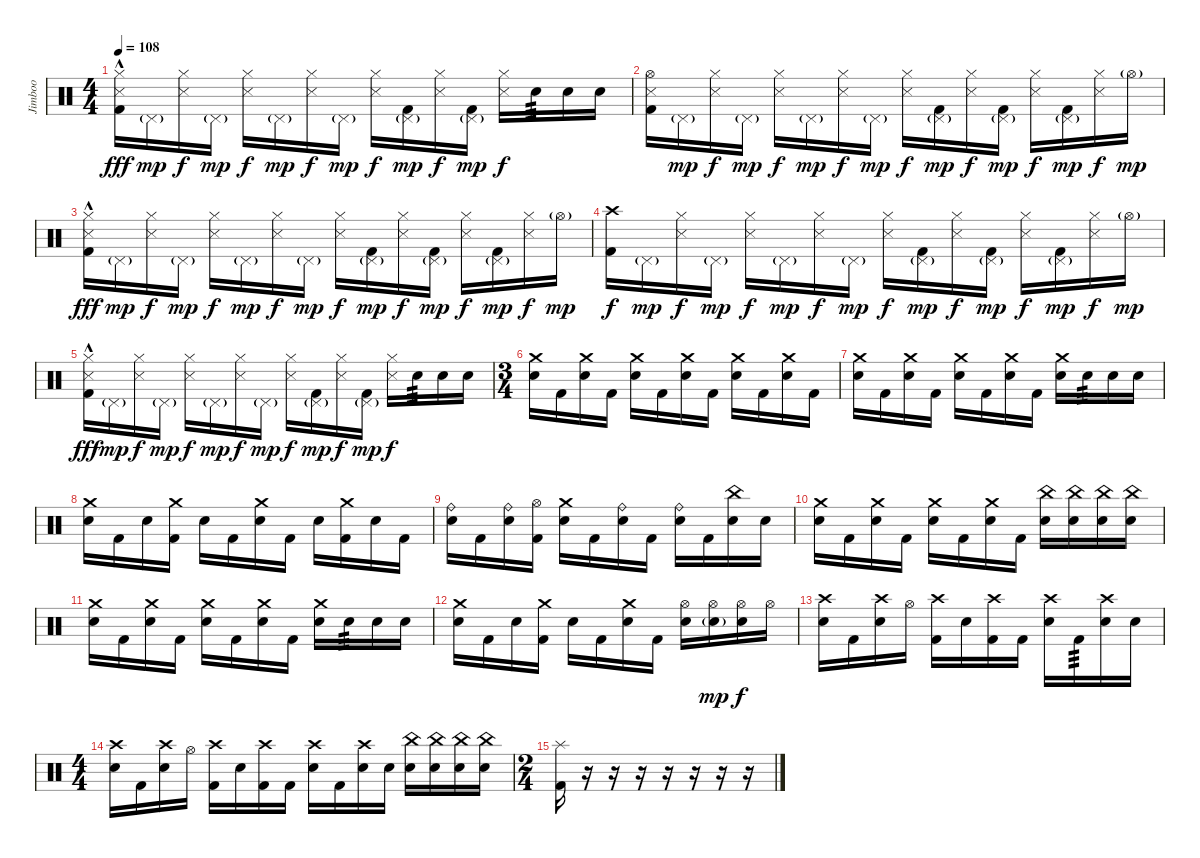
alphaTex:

\track ("Jimboo" "Jimboo") {instrument percussion}
\staff
\articulation defaults
\ts (4 4)
\tempo 108
\clef neutral
\ks c
("Hi-Hat (closed)" "Snare (side stick) 3"{hac} "Kick (hit) 2").16{dy fff} "Pedal Hi-Hat (hit)"{g}.16{dy mp} ("Hi-Hat (closed)" "Snare (side stick) 3").16{dy f} "Pedal Hi-Hat (hit)"{g}.16{dy mp} ("Hi-Hat (closed)" "Snare (side stick) 3").16{dy f} "Pedal Hi-Hat (hit)"{g}.16{dy mp} ("Hi-Hat (closed)" "Snare (side stick) 3").16{dy f} "Pedal Hi-Hat (hit)"{g}.16{dy mp} ("Hi-Hat (closed)" "Snare (side stick) 3").16{dy f} ("Pedal Hi-Hat (hit)"{g} "Kick (hit) 2").16{dy mp} ("Hi-Hat (closed)" "Snare (side stick) 3").16{dy f} ("Pedal Hi-Hat (hit)"{g} "Kick (hit) 2").16{dy mp} ("Hi-Hat (closed)" "Snare (side stick) 3").16{dy f} "Electric Snare (hit)".16{tp 3} "Electric Snare (hit)".16 "Electric Snare (hit)".16 |
("Hi-Hat (open)" "Snare (side stick) 3" "Kick (hit) 2").16 "Pedal Hi-Hat (hit)"{g}.16{dy mp} ("Hi-Hat (closed)" "Snare (side stick) 3").16{dy f} "Pedal Hi-Hat (hit)"{g}.16{dy mp} ("Hi-Hat (closed)" "Snare (side stick) 3").16{dy f} "Pedal Hi-Hat (hit)"{g}.16{dy mp} ("Hi-Hat (closed)" "Snare (side stick) 3").16{dy f} "Pedal Hi-Hat (hit)"{g}.16{dy mp} ("Hi-Hat (closed)" "Snare (side stick) 3").16{dy f} ("Pedal Hi-Hat (hit)"{g} "Kick (hit) 2").16{dy mp} ("Hi-Hat (closed)" "Snare (side stick) 3").16{dy f} ("Pedal Hi-Hat (hit)"{g} "Kick (hit) 2").16{dy mp} ("Hi-Hat (closed)" "Snare (side stick) 3").16{dy f} ("Pedal Hi-Hat (hit)"{g} "Kick (hit) 2").16{dy mp} ("Hi-Hat (closed)" "Snare (side stick) 3").16{dy f} "Hi-Hat (open)"{g}.16{dy mp} |
("Hi-Hat (closed)" "Snare (side stick) 3"{hac} "Kick (hit) 2").16{dy fff} "Pedal Hi-Hat (hit)"{g}.16{dy mp} ("Hi-Hat (closed)" "Snare (side stick) 3").16{dy f} "Pedal Hi-Hat (hit)"{g}.16{dy mp} ("Hi-Hat (closed)" "Snare (side stick) 3").16{dy f} "Pedal Hi-Hat (hit)"{g}.16{dy mp} ("Hi-Hat (closed)" "Snare (side stick) 3").16{dy f} "Pedal Hi-Hat (hit)"{g}.16{dy mp} ("Hi-Hat (closed)" "Snare (side stick) 3").16{dy f} ("Pedal Hi-Hat (hit)"{g} "Kick (hit) 2").16{dy mp} ("Hi-Hat (closed)" "Snare (side stick) 3").16{dy f} ("Pedal Hi-Hat (hit)"{g} "Kick (hit) 2").16{dy mp} ("Hi-Hat (closed)" "Snare (side stick) 3").16{dy f} ("Pedal Hi-Hat (hit)"{g} "Kick (hit) 2").16{dy mp} ("Hi-Hat (closed)" "Snare (side stick) 3").16{dy f} "Hi-Hat (open)"{g}.16{dy mp} |
("Crash high (hit)" "Kick (hit) 2").16{dy f} "Pedal Hi-Hat (hit)"{g}.16{dy mp} ("Hi-Hat (closed)" "Snare (side stick) 3").16{dy f} "Pedal Hi-Hat (hit)"{g}.16{dy mp} ("Hi-Hat (closed)" "Snare (side stick) 3").16{dy f} "Pedal Hi-Hat (hit)"{g}.16{dy mp} ("Hi-Hat (closed)" "Snare (side stick) 3").16{dy f} "Pedal Hi-Hat (hit)"{g}.16{dy mp} ("Hi-Hat (closed)" "Snare (side stick) 3").16{dy f} ("Pedal Hi-Hat (hit)"{g} "Kick (hit) 2").16{dy mp} ("Hi-Hat (closed)" "Snare (side stick) 3").16{dy f} ("Pedal Hi-Hat (hit)"{g} "Kick (hit) 2").16{dy mp} ("Hi-Hat (closed)" "Snare (side stick) 3").16{dy f} ("Pedal Hi-Hat (hit)"{g} "Kick (hit) 2").16{dy mp} ("Hi-Hat (closed)" "Snare (side stick) 3").16{dy f} "Hi-Hat (open)"{g}.16{dy mp} |
("Hi-Hat (closed)" "Snare (side stick) 3"{hac} "Kick (hit) 2").16{dy fff} "Pedal Hi-Hat (hit)"{g}.16{dy mp} ("Hi-Hat (closed)" "Snare (side stick) 3").16{dy f} "Pedal Hi-Hat (hit)"{g}.16{dy mp} ("Hi-Hat (closed)" "Snare (side stick) 3").16{dy f} "Pedal Hi-Hat (hit)"{g}.16{dy mp} ("Hi-Hat (closed)" "Snare (side stick) 3").16{dy f} "Pedal Hi-Hat (hit)"{g}.16{dy mp} ("Hi-Hat (closed)" "Snare (side stick) 3").16{dy f} ("Pedal Hi-Hat (hit)"{g} "Kick (hit) 2").16{dy mp} ("Hi-Hat (closed)" "Snare (side stick) 3").16{dy f} ("Pedal Hi-Hat (hit)"{g} "Kick (hit) 2").16{dy mp} ("Hi-Hat (closed)" "Snare (side stick) 3").16{dy f} "Electric Snare (hit)".16{tp 3} "Electric Snare (hit)".16 "Electric Snare (hit)".16 |
\ts (3 4)
("Electric Snare (hit)" "Crash medium (hit)").16 "Kick (hit) 2".16 ("Electric Snare (hit)" "Crash medium (hit)").16 "Kick (hit) 2".16 ("Electric Snare (hit)" "Crash medium (hit)").16 "Kick (hit) 2".16 ("Electric Snare (hit)" "Crash medium (hit)").16 "Kick (hit) 2".16 ("Electric Snare (hit)" "Crash medium (hit)").16 "Kick (hit) 2".16 ("Electric Snare (hit)" "Crash medium (hit)").16 "Kick (hit) 2".16 |
("Electric Snare (hit)" "Crash medium (hit)").16 "Kick (hit) 2".16 ("Electric Snare (hit)" "Crash medium (hit)").16 "Kick (hit) 2".16 ("Electric Snare (hit)" "Crash medium (hit)").16 "Kick (hit) 2".16 ("Electric Snare (hit)" "Crash medium (hit)").16 "Kick (hit) 2".16 ("Electric Snare (hit)" "Crash medium (hit)").16 "Electric Snare (hit)".16{tp 3} "Electric Snare (hit)".16 "Electric Snare (hit)".16 |
("Electric Snare (hit)" "Crash medium (hit)").16 "Kick (hit) 2".16 "Electric Snare (hit)".16 ("Kick (hit) 2" "Crash medium (hit)").16 "Electric Snare (hit)".16 "Kick (hit) 2".16 ("Electric Snare (hit)" "Crash medium (hit)").16 "Kick (hit) 2".16 "Electric Snare (hit)".16 ("Kick (hit) 2" "Crash medium (hit)").16 "Electric Snare (hit)".16 "Kick (hit) 2".16 |
("Electric Snare (hit)" "Ride (bell)").16 "Kick (hit) 2".16 ("Electric Snare (hit)" "Ride (bell)").16 ("Kick (hit) 2" "Hi-Hat (open)").16 ("Electric Snare (hit)" "Crash medium (hit)").16 "Kick (hit) 2".16 ("Electric Snare (hit)" "Ride (bell)").16 "Kick (hit) 2".16 ("Electric Snare (hit)" "Ride (bell)").16 "Kick (hit) 2".16 ("Electric Snare (hit)" "China (hit)").16 "Electric Snare (hit)".16 |
("Electric Snare (hit)" "Crash medium (hit)").16 "Kick (hit) 2".16 ("Electric Snare (hit)" "Crash medium (hit)").16 "Kick (hit) 2".16 ("Electric Snare (hit)" "Crash medium (hit)").16 "Kick (hit) 2".16 ("Electric Snare (hit)" "Crash medium (hit)").16 "Kick (hit) 2".16 ("Electric Snare (hit)" "China (hit)").16 ("Electric Snare (hit)" "China (hit)").16 ("Electric Snare (hit)" "China (hit)").16 ("Electric Snare (hit)" "China (hit)").16 |
("Electric Snare (hit)" "Crash medium (hit)").16 "Kick (hit) 2".16 ("Electric Snare (hit)" "Crash medium (hit)").16 "Kick (hit) 2".16 ("Electric Snare (hit)" "Crash medium (hit)").16 "Kick (hit) 2".16 ("Electric Snare (hit)" "Crash medium (hit)").16 "Kick (hit) 2".16 ("Electric Snare (hit)" "Crash medium (hit)").16 "Electric Snare (hit)".16{tp 3} "Electric Snare (hit)".16 "Electric Snare (hit)".16 |
("Electric Snare (hit)" "Crash medium (hit)").16 "Kick (hit) 2".16 "Electric Snare (hit)".16 ("Kick (hit) 2" "Crash medium (hit)").16 "Electric Snare (hit)".16 "Kick (hit) 2".16 ("Electric Snare (hit)" "Crash medium (hit)").16 "Kick (hit) 2".16 ("Electric Snare (hit)" "Hi-Hat (open)").16 ("Electric Snare (hit)"{g} "Hi-Hat (open)").16{dy mp} ("Electric Snare (hit)" "Hi-Hat (open)").16{dy f} "Hi-Hat (open)".16 |
("Electric Snare (hit)" "Crash high (hit)").16 "Kick (hit) 2".16 ("Electric Snare (hit)" "Crash high (hit)").16 "Hi-Hat (open)".16 ("Kick (hit) 2" "Crash high (hit)").16 "Electric Snare (hit)".16 ("Kick (hit) 2" "Crash high (hit)").16 "Kick (hit) 2".16 ("Electric Snare (hit)" "Crash high (hit)").16 "Kick (hit) 2".16{tp 3} ("Electric Snare (hit)" "Crash high (hit)").16 "Electric Snare (hit)".16 |
\ts (4 4)
("Electric Snare (hit)" "Crash high (hit)").16 "Kick (hit) 2".16 ("Electric Snare (hit)" "Crash high (hit)").16 "Hi-Hat (open)".16 ("Kick (hit) 2" "Crash high (hit)").16 "Electric Snare (hit)".16 ("Kick (hit) 2" "Crash high (hit)").16 "Kick (hit) 2".16 ("Electric Snare (hit)" "Crash high (hit)").16 "Kick (hit) 2".16 ("Electric Snare (hit)" "Crash high (hit)").16 "Electric Snare (hit)".16 ("Electric Snare (hit)" "China (hit)").16 ("Electric Snare (hit)" "China (hit)").16 ("Electric Snare (hit)" "China (hit)").16 ("Electric Snare (hit)" "China (hit)").16 |
\ts (2 4)
("Kick (hit) 2" "Splash (hit)").16 r.16 r.16 r.16 r.16 r.16 r.16 r.16
